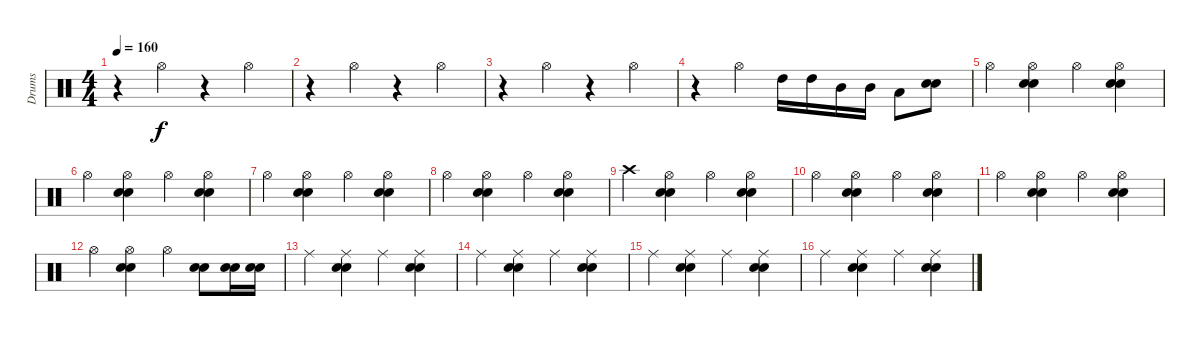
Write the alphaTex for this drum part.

\track ("Drums" "Drums") {instrument percussion}
\staff {score}
\articulation defaults
\ts (4 4)
\tempo 160
\clef neutral
\ks c
r.4{dy f} "Hi-Hat (open)".4 r.4 "Hi-Hat (open)".4 |
r.4 "Hi-Hat (open)".4 r.4 "Hi-Hat (open)".4 |
r.4 "Hi-Hat (open)".4 r.4 "Hi-Hat (open)".4 |
r.4 "Hi-Hat (open)".4 "High Tom (hit)".16 "High Tom (hit)".16 "Mid Tom (hit)".16 "Mid Tom (hit)".16 "Low Tom (hit)".8 ("Electric Snare (hit)" "Snare (hit) 2").8 |
"Hi-Hat (open)".4 ("Hi-Hat (open)" "Electric Snare (hit)" "Snare (hit) 2").4 "Hi-Hat (open)".4 ("Hi-Hat (open)" "Electric Snare (hit)" "Snare (hit) 2").4 |
"Hi-Hat (open)".4 ("Hi-Hat (open)" "Electric Snare (hit)" "Snare (hit) 2").4 "Hi-Hat (open)".4 ("Hi-Hat (open)" "Electric Snare (hit)" "Snare (hit) 2").4 |
"Hi-Hat (open)".4 ("Hi-Hat (open)" "Electric Snare (hit)" "Snare (hit) 2").4 "Hi-Hat (open)".4 ("Hi-Hat (open)" "Electric Snare (hit)" "Snare (hit) 2").4 |
"Hi-Hat (open)".4 ("Hi-Hat (open)" "Electric Snare (hit)" "Snare (hit) 2").4 "Hi-Hat (open)".4 ("Hi-Hat (open)" "Electric Snare (hit)" "Snare (hit) 2").4 |
"Crash high (hit)".4 ("Hi-Hat (open)" "Electric Snare (hit)" "Snare (hit) 2").4 "Hi-Hat (open)".4 ("Hi-Hat (open)" "Electric Snare (hit)" "Snare (hit) 2").4 |
"Hi-Hat (open)".4 ("Hi-Hat (open)" "Electric Snare (hit)" "Snare (hit) 2").4 "Hi-Hat (open)".4 ("Hi-Hat (open)" "Electric Snare (hit)" "Snare (hit) 2").4 |
"Hi-Hat (open)".4 ("Hi-Hat (open)" "Electric Snare (hit)" "Snare (hit) 2").4 "Hi-Hat (open)".4 ("Hi-Hat (open)" "Electric Snare (hit)" "Snare (hit) 2").4 |
"Hi-Hat (open)".4 ("Hi-Hat (open)" "Electric Snare (hit)" "Snare (hit) 2").4 "Hi-Hat (open)".4 ("Electric Snare (hit)" "Snare (hit) 2").8 ("Electric Snare (hit)" "Snare (hit) 2").16 ("Electric Snare (hit)" "Snare (hit) 2").16 |
"Ride (middle)".4 ("Ride (middle)" "Electric Snare (hit)" "Snare (hit) 2").4 "Ride (middle)".4 ("Ride (middle)" "Electric Snare (hit)" "Snare (hit) 2").4 |
"Ride (middle)".4 ("Ride (middle)" "Electric Snare (hit)" "Snare (hit) 2").4 "Ride (middle)".4 ("Ride (middle)" "Electric Snare (hit)" "Snare (hit) 2").4 |
"Ride (middle)".4 ("Ride (middle)" "Electric Snare (hit)" "Snare (hit) 2").4 "Ride (middle)".4 ("Ride (middle)" "Electric Snare (hit)" "Snare (hit) 2").4 |
"Ride (middle)".4 ("Ride (middle)" "Electric Snare (hit)" "Snare (hit) 2").4 "Ride (middle)".4 ("Ride (middle)" "Electric Snare (hit)" "Snare (hit) 2").4
